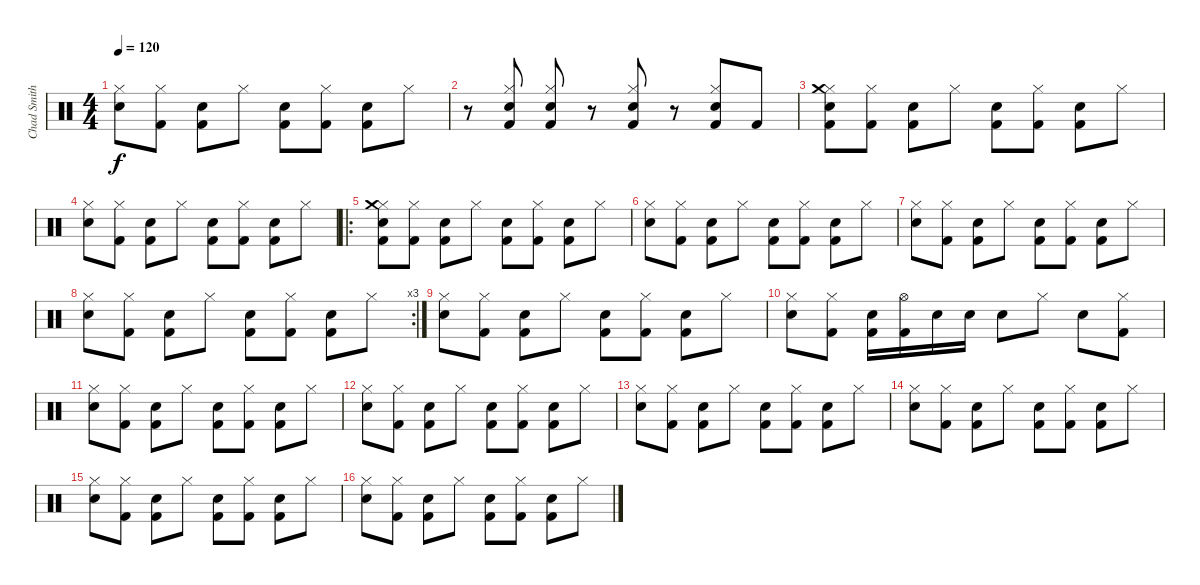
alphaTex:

\track ("Chad Smith" "Chad Smith") {instrument percussion}
\staff {score}
\articulation defaults
\ts (4 4)
\tempo 120
\clef neutral
\ks c
("Electric Snare (hit)" "Hi-Hat (closed)").8{dy f} ("Hi-Hat (closed)" "Kick (hit) 2").8 ("Electric Snare (hit)" "Kick (hit) 2").8 "Hi-Hat (closed)".8 ("Electric Snare (hit)" "Kick (hit) 2").8 ("Hi-Hat (closed)" "Kick (hit) 2").8 ("Electric Snare (hit)" "Kick (hit) 2").8 "Hi-Hat (closed)".8 |
r.8 ("Electric Snare (hit)" "Kick (hit) 2" "Hi-Hat (closed)").8 ("Electric Snare (hit)" "Kick (hit) 2" "Hi-Hat (closed)").8 r.8 ("Electric Snare (hit)" "Kick (hit) 2" "Hi-Hat (closed)").8 r.8 ("Electric Snare (hit)" "Kick (hit) 2" "Hi-Hat (closed)").8 "Kick (hit) 2".8 |
("Electric Snare (hit)" "Hi-Hat (closed)" "Crash medium (hit)" "Kick (hit) 2").8 ("Hi-Hat (closed)" "Kick (hit) 2").8 ("Electric Snare (hit)" "Kick (hit) 2").8 "Hi-Hat (closed)".8 ("Electric Snare (hit)" "Kick (hit) 2").8 ("Hi-Hat (closed)" "Kick (hit) 2").8 ("Electric Snare (hit)" "Kick (hit) 2").8 "Hi-Hat (closed)".8 |
("Electric Snare (hit)" "Hi-Hat (closed)").8 ("Hi-Hat (closed)" "Kick (hit) 2").8 ("Electric Snare (hit)" "Kick (hit) 2").8 "Hi-Hat (closed)".8 ("Electric Snare (hit)" "Kick (hit) 2").8 ("Hi-Hat (closed)" "Kick (hit) 2").8 ("Electric Snare (hit)" "Kick (hit) 2").8 "Hi-Hat (closed)".8 |
\ro
("Electric Snare (hit)" "Hi-Hat (closed)" "Crash medium (hit)" "Kick (hit) 2").8 ("Hi-Hat (closed)" "Kick (hit) 2").8 ("Electric Snare (hit)" "Kick (hit) 2").8 "Hi-Hat (closed)".8 ("Electric Snare (hit)" "Kick (hit) 2").8 ("Hi-Hat (closed)" "Kick (hit) 2").8 ("Electric Snare (hit)" "Kick (hit) 2").8 "Hi-Hat (closed)".8 |
("Electric Snare (hit)" "Hi-Hat (closed)").8 ("Hi-Hat (closed)" "Kick (hit) 2").8 ("Electric Snare (hit)" "Kick (hit) 2").8 "Hi-Hat (closed)".8 ("Electric Snare (hit)" "Kick (hit) 2").8 ("Hi-Hat (closed)" "Kick (hit) 2").8 ("Electric Snare (hit)" "Kick (hit) 2").8 "Hi-Hat (closed)".8 |
("Electric Snare (hit)" "Hi-Hat (closed)").8 ("Hi-Hat (closed)" "Kick (hit) 2").8 ("Electric Snare (hit)" "Kick (hit) 2").8 "Hi-Hat (closed)".8 ("Electric Snare (hit)" "Kick (hit) 2").8 ("Hi-Hat (closed)" "Kick (hit) 2").8 ("Electric Snare (hit)" "Kick (hit) 2").8 "Hi-Hat (closed)".8 |
\rc 3
("Electric Snare (hit)" "Hi-Hat (closed)").8 ("Hi-Hat (closed)" "Kick (hit) 2").8 ("Electric Snare (hit)" "Kick (hit) 2").8 "Hi-Hat (closed)".8 ("Electric Snare (hit)" "Kick (hit) 2").8 ("Hi-Hat (closed)" "Kick (hit) 2").8 ("Electric Snare (hit)" "Kick (hit) 2").8 "Hi-Hat (closed)".8 |
("Electric Snare (hit)" "Hi-Hat (closed)").8 ("Hi-Hat (closed)" "Kick (hit) 2").8 ("Electric Snare (hit)" "Kick (hit) 2").8 "Hi-Hat (closed)".8 ("Electric Snare (hit)" "Kick (hit) 2").8 ("Hi-Hat (closed)" "Kick (hit) 2").8 ("Electric Snare (hit)" "Kick (hit) 2").8 "Hi-Hat (closed)".8 |
("Electric Snare (hit)" "Hi-Hat (closed)").8 ("Hi-Hat (closed)" "Kick (hit) 2").8 ("Electric Snare (hit)" "Kick (hit) 2").16 ("Hi-Hat (open)" "Kick (hit) 2").16 "Electric Snare (hit)".16 "Electric Snare (hit)".16 "Electric Snare (hit)".8 "Hi-Hat (closed)".8 "Electric Snare (hit)".8 ("Hi-Hat (closed)" "Kick (hit) 2").8 |
("Electric Snare (hit)" "Hi-Hat (closed)").8 ("Hi-Hat (closed)" "Kick (hit) 2").8 ("Electric Snare (hit)" "Kick (hit) 2").8 "Hi-Hat (closed)".8 ("Electric Snare (hit)" "Kick (hit) 2").8 ("Hi-Hat (closed)" "Kick (hit) 2").8 ("Electric Snare (hit)" "Kick (hit) 2").8 "Hi-Hat (closed)".8 |
("Electric Snare (hit)" "Hi-Hat (closed)").8 ("Hi-Hat (closed)" "Kick (hit) 2").8 ("Electric Snare (hit)" "Kick (hit) 2").8 "Hi-Hat (closed)".8 ("Electric Snare (hit)" "Kick (hit) 2").8 ("Hi-Hat (closed)" "Kick (hit) 2").8 ("Electric Snare (hit)" "Kick (hit) 2").8 "Hi-Hat (closed)".8 |
("Electric Snare (hit)" "Hi-Hat (closed)").8 ("Hi-Hat (closed)" "Kick (hit) 2").8 ("Electric Snare (hit)" "Kick (hit) 2").8 "Hi-Hat (closed)".8 ("Electric Snare (hit)" "Kick (hit) 2").8 ("Hi-Hat (closed)" "Kick (hit) 2").8 ("Electric Snare (hit)" "Kick (hit) 2").8 "Hi-Hat (closed)".8 |
("Electric Snare (hit)" "Hi-Hat (closed)").8 ("Hi-Hat (closed)" "Kick (hit) 2").8 ("Electric Snare (hit)" "Kick (hit) 2").8 "Hi-Hat (closed)".8 ("Electric Snare (hit)" "Kick (hit) 2").8 ("Hi-Hat (closed)" "Kick (hit) 2").8 ("Electric Snare (hit)" "Kick (hit) 2").8 "Hi-Hat (closed)".8 |
("Electric Snare (hit)" "Hi-Hat (closed)").8 ("Hi-Hat (closed)" "Kick (hit) 2").8 ("Electric Snare (hit)" "Kick (hit) 2").8 "Hi-Hat (closed)".8 ("Electric Snare (hit)" "Kick (hit) 2").8 ("Hi-Hat (closed)" "Kick (hit) 2").8 ("Electric Snare (hit)" "Kick (hit) 2").8 "Hi-Hat (closed)".8 |
("Electric Snare (hit)" "Hi-Hat (closed)").8 ("Hi-Hat (closed)" "Kick (hit) 2").8 ("Electric Snare (hit)" "Kick (hit) 2").8 "Hi-Hat (closed)".8 ("Electric Snare (hit)" "Kick (hit) 2").8 ("Hi-Hat (closed)" "Kick (hit) 2").8 ("Electric Snare (hit)" "Kick (hit) 2").8 "Hi-Hat (closed)".8
